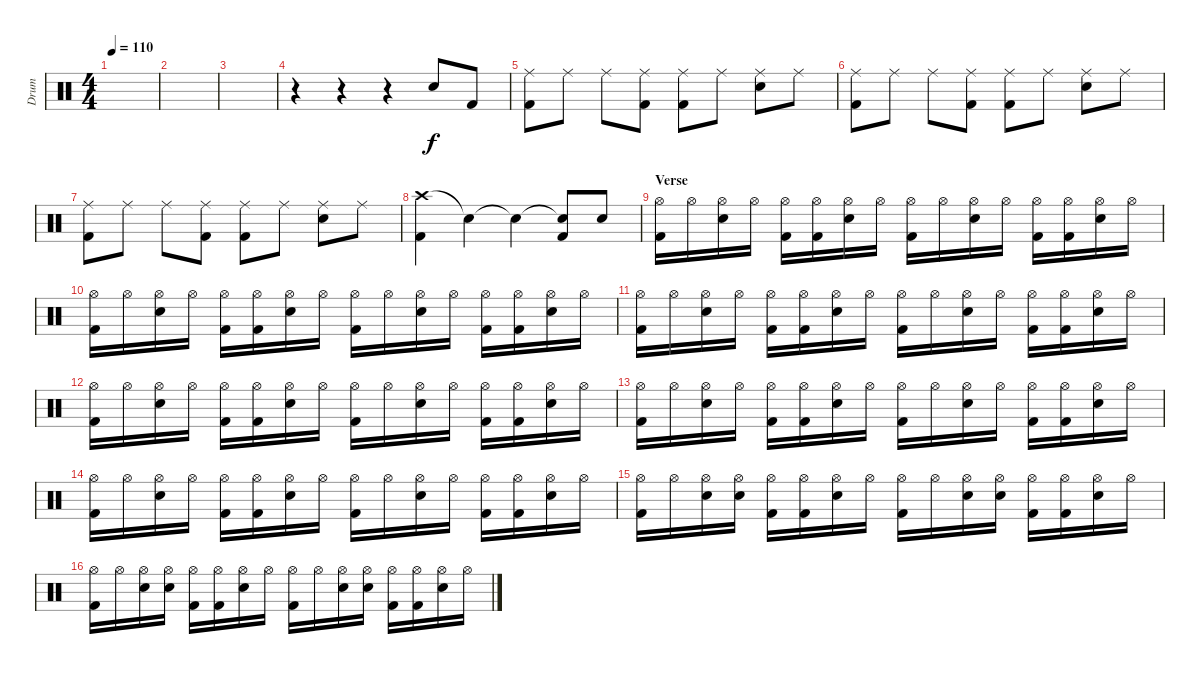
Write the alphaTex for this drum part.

\track ("Drum" "Drum") {instrument percussion}
\staff {score}
\articulation defaults
\ts (4 4)
\tempo 110
\clef neutral
\ks c
|
|
|
r.4 r.4 r.4 "Electric Snare (hit)".8 "Kick (hit) 2".8 |
("Ride (middle)" "Kick (hit) 2").8 "Ride (middle)".8 "Ride (middle)".8 ("Ride (middle)" "Kick (hit) 2").8 ("Ride (middle)" "Kick (hit) 2").8 "Ride (middle)".8 ("Ride (middle)" "Electric Snare (hit)").8 "Ride (middle)".8 |
("Ride (middle)" "Kick (hit) 2").8 "Ride (middle)".8 "Ride (middle)".8 ("Ride (middle)" "Kick (hit) 2").8 ("Ride (middle)" "Kick (hit) 2").8 "Ride (middle)".8 ("Ride (middle)" "Electric Snare (hit)").8 "Ride (middle)".8 |
("Ride (middle)" "Kick (hit) 2").8 "Ride (middle)".8 "Ride (middle)".8 ("Ride (middle)" "Kick (hit) 2").8 ("Ride (middle)" "Kick (hit) 2").8 "Ride (middle)".8 ("Ride (middle)" "Electric Snare (hit)").8 "Ride (middle)".8 |
("Crash high (hit)" "Kick (hit) 2").4 "Snare (hit)"{t}.4 "Snare (hit)"{t}.4 ("Snare (hit)"{t} "Kick (hit) 2").8 "Electric Snare (hit)".8 |
\section ("" "Verse")
("Hi-Hat (open)" "Kick (hit) 2").16 "Hi-Hat (open)".16 ("Hi-Hat (open)" "Electric Snare (hit)").16 "Hi-Hat (open)".16 ("Hi-Hat (open)" "Kick (hit) 2").16 ("Hi-Hat (open)" "Kick (hit) 2").16 ("Hi-Hat (open)" "Electric Snare (hit)").16 "Hi-Hat (open)".16 ("Hi-Hat (open)" "Kick (hit) 2").16 "Hi-Hat (open)".16 ("Hi-Hat (open)" "Electric Snare (hit)").16 "Hi-Hat (open)".16 ("Hi-Hat (open)" "Kick (hit) 2").16 ("Hi-Hat (open)" "Kick (hit) 2").16 ("Hi-Hat (open)" "Electric Snare (hit)").16 "Hi-Hat (open)".16 |
("Hi-Hat (open)" "Kick (hit) 2").16 "Hi-Hat (open)".16 ("Hi-Hat (open)" "Electric Snare (hit)").16 "Hi-Hat (open)".16 ("Hi-Hat (open)" "Kick (hit) 2").16 ("Hi-Hat (open)" "Kick (hit) 2").16 ("Hi-Hat (open)" "Electric Snare (hit)").16 "Hi-Hat (open)".16 ("Hi-Hat (open)" "Kick (hit) 2").16 "Hi-Hat (open)".16 ("Hi-Hat (open)" "Electric Snare (hit)").16 "Hi-Hat (open)".16 ("Hi-Hat (open)" "Kick (hit) 2").16 ("Hi-Hat (open)" "Kick (hit) 2").16 ("Hi-Hat (open)" "Electric Snare (hit)").16 "Hi-Hat (open)".16 |
("Hi-Hat (open)" "Kick (hit) 2").16 "Hi-Hat (open)".16 ("Hi-Hat (open)" "Electric Snare (hit)").16 "Hi-Hat (open)".16 ("Hi-Hat (open)" "Kick (hit) 2").16 ("Hi-Hat (open)" "Kick (hit) 2").16 ("Hi-Hat (open)" "Electric Snare (hit)").16 "Hi-Hat (open)".16 ("Hi-Hat (open)" "Kick (hit) 2").16 "Hi-Hat (open)".16 ("Hi-Hat (open)" "Electric Snare (hit)").16 "Hi-Hat (open)".16 ("Hi-Hat (open)" "Kick (hit) 2").16 ("Hi-Hat (open)" "Kick (hit) 2").16 ("Hi-Hat (open)" "Electric Snare (hit)").16 "Hi-Hat (open)".16 |
("Hi-Hat (open)" "Kick (hit) 2").16 "Hi-Hat (open)".16 ("Hi-Hat (open)" "Electric Snare (hit)").16 "Hi-Hat (open)".16 ("Hi-Hat (open)" "Kick (hit) 2").16 ("Hi-Hat (open)" "Kick (hit) 2").16 ("Hi-Hat (open)" "Electric Snare (hit)").16 "Hi-Hat (open)".16 ("Hi-Hat (open)" "Kick (hit) 2").16 "Hi-Hat (open)".16 ("Hi-Hat (open)" "Electric Snare (hit)").16 "Hi-Hat (open)".16 ("Hi-Hat (open)" "Kick (hit) 2").16 ("Hi-Hat (open)" "Kick (hit) 2").16 ("Hi-Hat (open)" "Electric Snare (hit)").16 "Hi-Hat (open)".16 |
("Hi-Hat (open)" "Kick (hit) 2").16 "Hi-Hat (open)".16 ("Hi-Hat (open)" "Electric Snare (hit)").16 "Hi-Hat (open)".16 ("Hi-Hat (open)" "Kick (hit) 2").16 ("Hi-Hat (open)" "Kick (hit) 2").16 ("Hi-Hat (open)" "Electric Snare (hit)").16 "Hi-Hat (open)".16 ("Hi-Hat (open)" "Kick (hit) 2").16 "Hi-Hat (open)".16 ("Hi-Hat (open)" "Electric Snare (hit)").16 "Hi-Hat (open)".16 ("Hi-Hat (open)" "Kick (hit) 2").16 ("Hi-Hat (open)" "Kick (hit) 2").16 ("Hi-Hat (open)" "Electric Snare (hit)").16 "Hi-Hat (open)".16 |
("Hi-Hat (open)" "Kick (hit) 2").16 "Hi-Hat (open)".16 ("Hi-Hat (open)" "Electric Snare (hit)").16 "Hi-Hat (open)".16 ("Hi-Hat (open)" "Kick (hit) 2").16 ("Hi-Hat (open)" "Kick (hit) 2").16 ("Hi-Hat (open)" "Electric Snare (hit)").16 "Hi-Hat (open)".16 ("Hi-Hat (open)" "Kick (hit) 2").16 "Hi-Hat (open)".16 ("Hi-Hat (open)" "Electric Snare (hit)").16 "Hi-Hat (open)".16 ("Hi-Hat (open)" "Kick (hit) 2").16 ("Hi-Hat (open)" "Kick (hit) 2").16 ("Hi-Hat (open)" "Electric Snare (hit)").16 "Hi-Hat (open)".16 |
("Hi-Hat (open)" "Kick (hit) 2").16 "Hi-Hat (open)".16 ("Hi-Hat (open)" "Electric Snare (hit)").16 ("Hi-Hat (open)" "Electric Snare (hit)").16 ("Hi-Hat (open)" "Kick (hit) 2").16 ("Hi-Hat (open)" "Kick (hit) 2").16 ("Hi-Hat (open)" "Electric Snare (hit)").16 "Hi-Hat (open)".16 ("Hi-Hat (open)" "Kick (hit) 2").16 "Hi-Hat (open)".16 ("Hi-Hat (open)" "Electric Snare (hit)").16 ("Hi-Hat (open)" "Electric Snare (hit)").16 ("Hi-Hat (open)" "Kick (hit) 2").16 ("Hi-Hat (open)" "Kick (hit) 2").16 ("Hi-Hat (open)" "Electric Snare (hit)").16 "Hi-Hat (open)".16 |
("Hi-Hat (open)" "Kick (hit) 2").16 "Hi-Hat (open)".16 ("Hi-Hat (open)" "Electric Snare (hit)").16 ("Hi-Hat (open)" "Electric Snare (hit)").16 ("Hi-Hat (open)" "Kick (hit) 2").16 ("Hi-Hat (open)" "Kick (hit) 2").16 ("Hi-Hat (open)" "Electric Snare (hit)").16 "Hi-Hat (open)".16 ("Hi-Hat (open)" "Kick (hit) 2").16 "Hi-Hat (open)".16 ("Hi-Hat (open)" "Electric Snare (hit)").16 ("Hi-Hat (open)" "Electric Snare (hit)").16 ("Hi-Hat (open)" "Kick (hit) 2").16 ("Hi-Hat (open)" "Kick (hit) 2").16 ("Hi-Hat (open)" "Electric Snare (hit)").16 "Hi-Hat (open)".16
